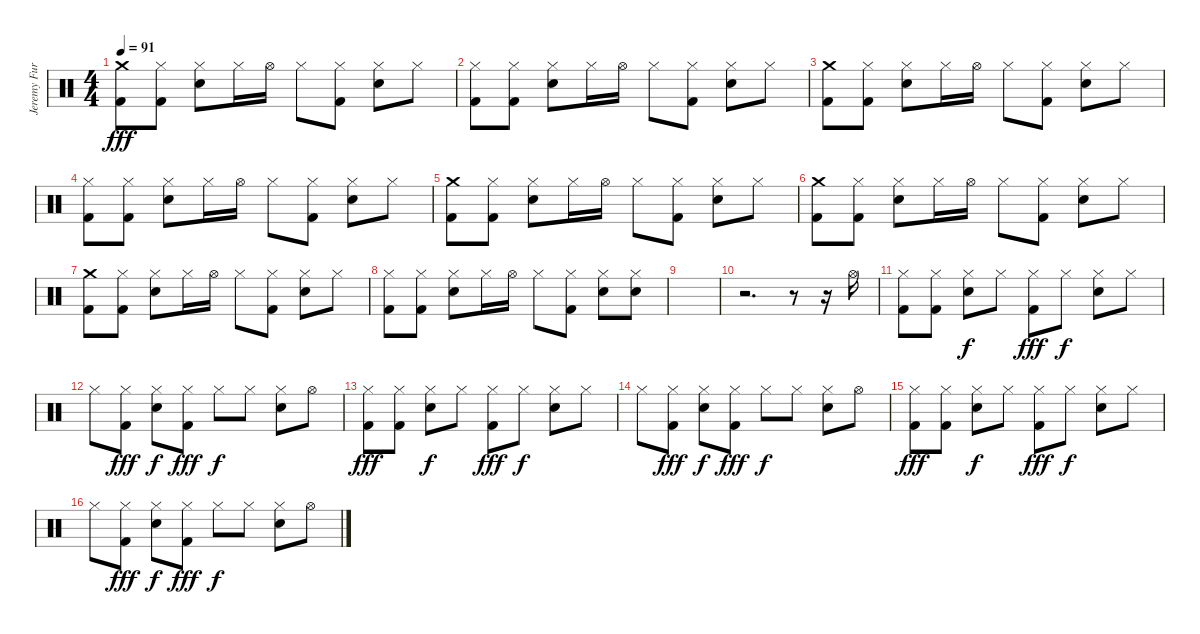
\track ("Jeremy Furstenfeld - drums" "Jeremy Fur") {instrument percussion}
\staff {score}
\articulation defaults
\ts (4 4)
\tempo 91
\clef neutral
\ks c
("Crash medium (hit)" "Kick (hit) 2").8{dy fff} ("Hi-Hat (closed)" "Kick (hit) 2").8 ("Hi-Hat (closed)" "Electric Snare (hit)").8 "Hi-Hat (closed)".16 "Hi-Hat (open)".16 "Hi-Hat (closed)".8 ("Hi-Hat (closed)" "Kick (hit) 2").8 ("Hi-Hat (closed)" "Electric Snare (hit)").8 "Hi-Hat (closed)".8 |
("Hi-Hat (closed)" "Kick (hit) 2").8 ("Hi-Hat (closed)" "Kick (hit) 2").8 ("Hi-Hat (closed)" "Electric Snare (hit)").8 "Hi-Hat (closed)".16 "Hi-Hat (open)".16 "Hi-Hat (closed)".8 ("Hi-Hat (closed)" "Kick (hit) 2").8 ("Hi-Hat (closed)" "Electric Snare (hit)").8 "Hi-Hat (closed)".8 |
("Crash medium (hit)" "Kick (hit) 2").8 ("Hi-Hat (closed)" "Kick (hit) 2").8 ("Hi-Hat (closed)" "Electric Snare (hit)").8 "Hi-Hat (closed)".16 "Hi-Hat (open)".16 "Hi-Hat (closed)".8 ("Hi-Hat (closed)" "Kick (hit) 2").8 ("Hi-Hat (closed)" "Electric Snare (hit)").8 "Hi-Hat (closed)".8 |
("Hi-Hat (closed)" "Kick (hit) 2").8 ("Hi-Hat (closed)" "Kick (hit) 2").8 ("Hi-Hat (closed)" "Electric Snare (hit)").8 "Hi-Hat (closed)".16 "Hi-Hat (open)".16 "Hi-Hat (closed)".8 ("Hi-Hat (closed)" "Kick (hit) 2").8 ("Hi-Hat (closed)" "Electric Snare (hit)").8 "Hi-Hat (closed)".8 |
("Crash medium (hit)" "Kick (hit) 2").8 ("Hi-Hat (closed)" "Kick (hit) 2").8 ("Hi-Hat (closed)" "Electric Snare (hit)").8 "Hi-Hat (closed)".16 "Hi-Hat (open)".16 "Hi-Hat (closed)".8 ("Hi-Hat (closed)" "Kick (hit) 2").8 ("Hi-Hat (closed)" "Electric Snare (hit)").8 "Hi-Hat (closed)".8 |
("Crash medium (hit)" "Kick (hit) 2").8 ("Hi-Hat (closed)" "Kick (hit) 2").8 ("Hi-Hat (closed)" "Electric Snare (hit)").8 "Hi-Hat (closed)".16 "Hi-Hat (open)".16 "Hi-Hat (closed)".8 ("Hi-Hat (closed)" "Kick (hit) 2").8 ("Hi-Hat (closed)" "Electric Snare (hit)").8 "Hi-Hat (closed)".8 |
("Crash medium (hit)" "Kick (hit) 2").8 ("Hi-Hat (closed)" "Kick (hit) 2").8 ("Hi-Hat (closed)" "Electric Snare (hit)").8 "Hi-Hat (closed)".16 "Hi-Hat (open)".16 "Hi-Hat (closed)".8 ("Hi-Hat (closed)" "Kick (hit) 2").8 ("Hi-Hat (closed)" "Electric Snare (hit)").8 "Hi-Hat (closed)".8 |
("Hi-Hat (closed)" "Kick (hit) 2").8 ("Hi-Hat (closed)" "Kick (hit) 2").8 ("Hi-Hat (closed)" "Electric Snare (hit)").8 "Hi-Hat (closed)".16 "Hi-Hat (open)".16 "Hi-Hat (closed)".8 ("Hi-Hat (closed)" "Kick (hit) 2").8 ("Hi-Hat (closed)" "Electric Snare (hit)").8 ("Hi-Hat (closed)" "Electric Snare (hit)").8 |
|
r.2{d} r.8 r.16 "Hi-Hat (open)".16 |
("Hi-Hat (closed)" "Kick (hit) 2").8 ("Hi-Hat (closed)" "Kick (hit) 2").8 ("Hi-Hat (closed)" "Electric Snare (hit)").8{dy f} "Hi-Hat (closed)".8 ("Hi-Hat (closed)" "Kick (hit) 2").8{dy fff} "Hi-Hat (closed)".8{dy f} ("Hi-Hat (closed)" "Electric Snare (hit)").8 "Hi-Hat (closed)".8 |
"Hi-Hat (closed)".8 ("Hi-Hat (closed)" "Kick (hit) 2").8{dy fff} ("Hi-Hat (closed)" "Electric Snare (hit)").8{dy f} ("Hi-Hat (closed)" "Kick (hit) 2").8{dy fff} "Hi-Hat (closed)".8{dy f} "Hi-Hat (closed)".8 ("Hi-Hat (closed)" "Electric Snare (hit)").8 "Hi-Hat (open)".8 |
("Hi-Hat (closed)" "Kick (hit) 2").8{dy fff} ("Hi-Hat (closed)" "Kick (hit) 2").8 ("Hi-Hat (closed)" "Electric Snare (hit)").8{dy f} "Hi-Hat (closed)".8 ("Hi-Hat (closed)" "Kick (hit) 2").8{dy fff} "Hi-Hat (closed)".8{dy f} ("Hi-Hat (closed)" "Electric Snare (hit)").8 "Hi-Hat (closed)".8 |
"Hi-Hat (closed)".8 ("Hi-Hat (closed)" "Kick (hit) 2").8{dy fff} ("Hi-Hat (closed)" "Electric Snare (hit)").8{dy f} ("Hi-Hat (closed)" "Kick (hit) 2").8{dy fff} "Hi-Hat (closed)".8{dy f} "Hi-Hat (closed)".8 ("Hi-Hat (closed)" "Electric Snare (hit)").8 "Hi-Hat (open)".8 |
("Hi-Hat (closed)" "Kick (hit) 2").8{dy fff} ("Hi-Hat (closed)" "Kick (hit) 2").8 ("Hi-Hat (closed)" "Electric Snare (hit)").8{dy f} "Hi-Hat (closed)".8 ("Hi-Hat (closed)" "Kick (hit) 2").8{dy fff} "Hi-Hat (closed)".8{dy f} ("Hi-Hat (closed)" "Electric Snare (hit)").8 "Hi-Hat (closed)".8 |
"Hi-Hat (closed)".8 ("Hi-Hat (closed)" "Kick (hit) 2").8{dy fff} ("Hi-Hat (closed)" "Electric Snare (hit)").8{dy f} ("Hi-Hat (closed)" "Kick (hit) 2").8{dy fff} "Hi-Hat (closed)".8{dy f} "Hi-Hat (closed)".8 ("Hi-Hat (closed)" "Electric Snare (hit)").8 "Hi-Hat (open)".8
